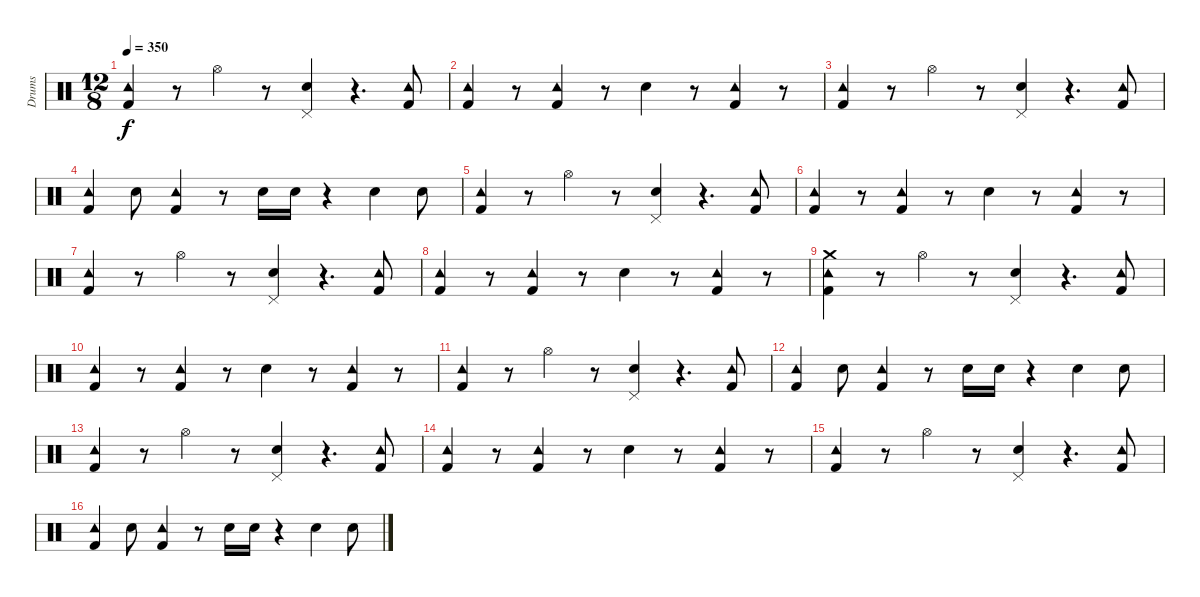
\track ("Drums" "Drums") {instrument percussion}
\staff {score}
\articulation defaults
\ts (12 8)
\tempo 350
\clef neutral
\ks c
("Kick (hit) 2" "Tambourine (hit)").4{dy f} r.8 "Hi-Hat (open)".4 r.8 ("Snare (hit) 2" "Pedal Hi-Hat (hit)").4 r.4{d} ("Kick (hit) 2" "Tambourine (hit)").8 |
("Kick (hit) 2" "Tambourine (hit)").4 r.8 ("Kick (hit) 2" "Tambourine (hit)").4 r.8 "Snare (hit) 2".4 r.8 ("Kick (hit) 2" "Tambourine (hit)").4 r.8 |
("Kick (hit) 2" "Tambourine (hit)").4 r.8 "Hi-Hat (open)".4 r.8 ("Snare (hit) 2" "Pedal Hi-Hat (hit)").4 r.4{d} ("Kick (hit) 2" "Tambourine (hit)").8 |
("Kick (hit) 2" "Tambourine (hit)").4 "Snare (hit) 2".8 ("Kick (hit) 2" "Tambourine (hit)").4 r.8 "Snare (hit) 2".16 "Snare (hit) 2".16 r.4 "Snare (hit) 2".4 "Snare (hit) 2".8 |
("Kick (hit) 2" "Tambourine (hit)").4 r.8 "Hi-Hat (open)".4 r.8 ("Snare (hit) 2" "Pedal Hi-Hat (hit)").4 r.4{d} ("Kick (hit) 2" "Tambourine (hit)").8 |
("Kick (hit) 2" "Tambourine (hit)").4 r.8 ("Kick (hit) 2" "Tambourine (hit)").4 r.8 "Snare (hit) 2".4 r.8 ("Kick (hit) 2" "Tambourine (hit)").4 r.8 |
("Kick (hit) 2" "Tambourine (hit)").4 r.8 "Hi-Hat (open)".4 r.8 ("Snare (hit) 2" "Pedal Hi-Hat (hit)").4 r.4{d} ("Kick (hit) 2" "Tambourine (hit)").8 |
("Kick (hit) 2" "Tambourine (hit)").4 r.8 ("Kick (hit) 2" "Tambourine (hit)").4 r.8 "Snare (hit) 2".4 r.8 ("Kick (hit) 2" "Tambourine (hit)").4 r.8 |
("Kick (hit) 2" "Tambourine (hit)" "Crash medium (hit)").4 r.8 "Hi-Hat (open)".4 r.8 ("Snare (hit) 2" "Pedal Hi-Hat (hit)").4 r.4{d} ("Kick (hit) 2" "Tambourine (hit)").8 |
("Kick (hit) 2" "Tambourine (hit)").4 r.8 ("Kick (hit) 2" "Tambourine (hit)").4 r.8 "Snare (hit) 2".4 r.8 ("Kick (hit) 2" "Tambourine (hit)").4 r.8 |
("Kick (hit) 2" "Tambourine (hit)").4 r.8 "Hi-Hat (open)".4 r.8 ("Snare (hit) 2" "Pedal Hi-Hat (hit)").4 r.4{d} ("Kick (hit) 2" "Tambourine (hit)").8 |
("Kick (hit) 2" "Tambourine (hit)").4 "Snare (hit) 2".8 ("Kick (hit) 2" "Tambourine (hit)").4 r.8 "Snare (hit) 2".16 "Snare (hit) 2".16 r.4 "Snare (hit) 2".4 "Snare (hit) 2".8 |
("Kick (hit) 2" "Tambourine (hit)").4 r.8 "Hi-Hat (open)".4 r.8 ("Snare (hit) 2" "Pedal Hi-Hat (hit)").4 r.4{d} ("Kick (hit) 2" "Tambourine (hit)").8 |
("Kick (hit) 2" "Tambourine (hit)").4 r.8 ("Kick (hit) 2" "Tambourine (hit)").4 r.8 "Snare (hit) 2".4 r.8 ("Kick (hit) 2" "Tambourine (hit)").4 r.8 |
("Kick (hit) 2" "Tambourine (hit)").4 r.8 "Hi-Hat (open)".4 r.8 ("Snare (hit) 2" "Pedal Hi-Hat (hit)").4 r.4{d} ("Kick (hit) 2" "Tambourine (hit)").8 |
("Kick (hit) 2" "Tambourine (hit)").4 "Snare (hit) 2".8 ("Kick (hit) 2" "Tambourine (hit)").4 r.8 "Snare (hit) 2".16 "Snare (hit) 2".16 r.4 "Snare (hit) 2".4 "Snare (hit) 2".8
